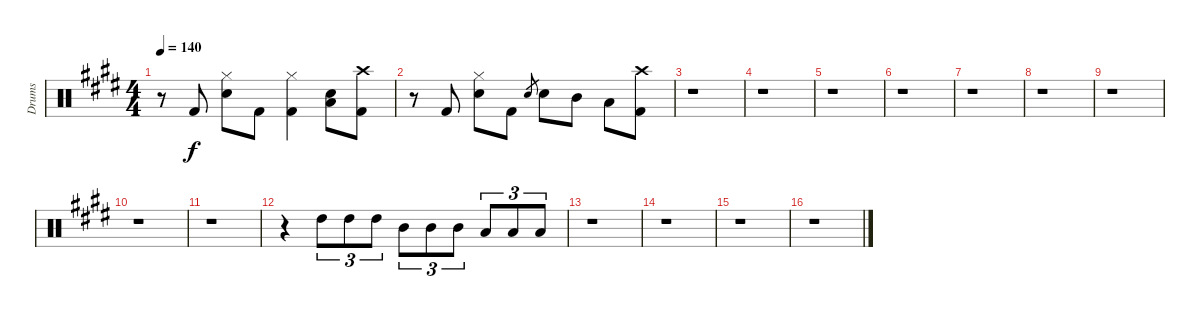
\track ("Drums" "Drums") {instrument percussion}
\staff {score}
\articulation defaults
\ts (4 4)
\tempo 140
\clef neutral
\ks e
r.8{dy f} "Kick (hit) 2".8 ("Hi-Hat (closed)" "Electric Snare (hit)").8 "Kick (hit) 2".8 ("Hi-Hat (closed)" "Kick (hit) 2").4 ("Electric Snare (hit)" "Low Tom (hit)").8 ("Crash high (hit)" "Kick (hit) 2").8 |
r.8 "Kick (hit) 2".8 ("Hi-Hat (closed)" "Electric Snare (hit)").8 "Kick (hit) 2".8 "Electric Snare (hit)".8{gr} "Electric Snare (hit)".8 "Mid Tom (hit)".8 "Low Tom (hit)".8 ("Crash high (hit)" "Kick (hit) 2").8 |
r.1 |
r.1 |
r.1 |
r.1 |
r.1 |
r.1 |
r.1 |
r.1 |
r.1 |
r.4 "High Tom (hit)".8{tu (3 2)} "High Tom (hit)".8{tu (3 2)} "High Tom (hit)".8{tu (3 2)} "Mid Tom (hit)".8{tu (3 2)} "Mid Tom (hit)".8{tu (3 2)} "Mid Tom (hit)".8{tu (3 2)} "Low Tom (hit)".8{tu (3 2)} "Low Tom (hit)".8{tu (3 2)} "Low Tom (hit)".8{tu (3 2)} |
r.1 |
r.1 |
r.1 |
r.1
